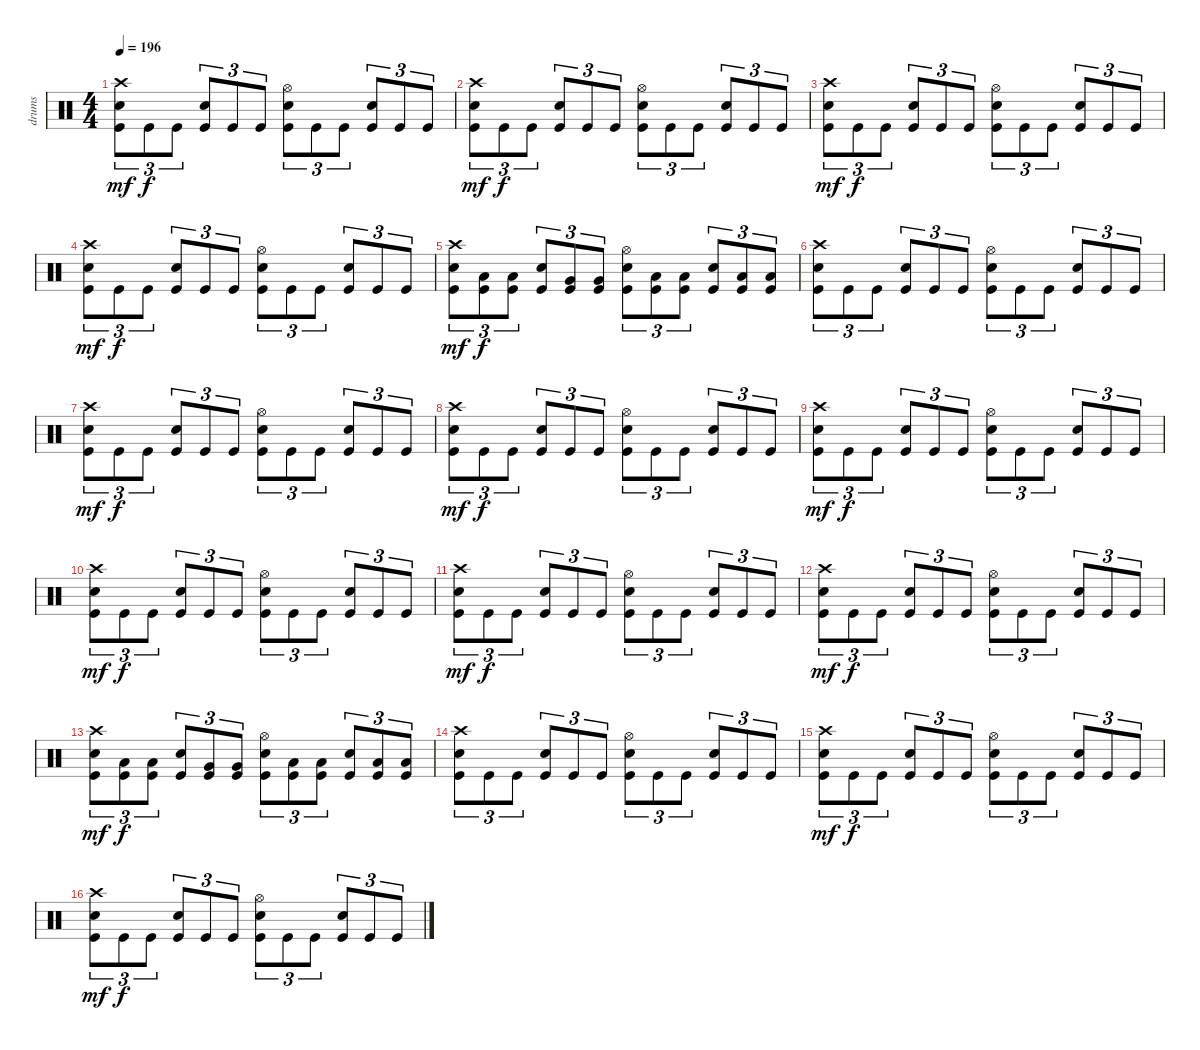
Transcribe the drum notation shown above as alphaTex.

\track ("drums" "drums") {instrument percussion}
\staff {score}
\articulation defaults
\ts (4 4)
\tempo 196
\clef neutral
\ks c
("Crash high (hit)" "Electric Snare (hit)" "Kick (hit)").8{tu (3 2) dy mf} "Kick (hit)".8{tu (3 2) dy f} "Kick (hit)".8{tu (3 2)} ("Electric Snare (hit)" "Kick (hit)").8{tu (3 2)} "Kick (hit)".8{tu (3 2)} "Kick (hit)".8{tu (3 2)} ("Hi-Hat (open)" "Electric Snare (hit)" "Kick (hit)").8{tu (3 2)} "Kick (hit)".8{tu (3 2)} "Kick (hit)".8{tu (3 2)} ("Electric Snare (hit)" "Kick (hit)").8{tu (3 2)} "Kick (hit)".8{tu (3 2)} "Kick (hit)".8{tu (3 2)} |
("Crash high (hit)" "Electric Snare (hit)" "Kick (hit)").8{tu (3 2) dy mf} "Kick (hit)".8{tu (3 2) dy f} "Kick (hit)".8{tu (3 2)} ("Electric Snare (hit)" "Kick (hit)").8{tu (3 2)} "Kick (hit)".8{tu (3 2)} "Kick (hit)".8{tu (3 2)} ("Hi-Hat (open)" "Electric Snare (hit)" "Kick (hit)").8{tu (3 2)} "Kick (hit)".8{tu (3 2)} "Kick (hit)".8{tu (3 2)} ("Electric Snare (hit)" "Kick (hit)").8{tu (3 2)} "Kick (hit)".8{tu (3 2)} "Kick (hit)".8{tu (3 2)} |
("Crash high (hit)" "Electric Snare (hit)" "Kick (hit)").8{tu (3 2) dy mf} "Kick (hit)".8{tu (3 2) dy f} "Kick (hit)".8{tu (3 2)} ("Electric Snare (hit)" "Kick (hit)").8{tu (3 2)} "Kick (hit)".8{tu (3 2)} "Kick (hit)".8{tu (3 2)} ("Hi-Hat (open)" "Electric Snare (hit)" "Kick (hit)").8{tu (3 2)} "Kick (hit)".8{tu (3 2)} "Kick (hit)".8{tu (3 2)} ("Electric Snare (hit)" "Kick (hit)").8{tu (3 2)} "Kick (hit)".8{tu (3 2)} "Kick (hit)".8{tu (3 2)} |
("Crash high (hit)" "Electric Snare (hit)" "Kick (hit)").8{tu (3 2) dy mf} "Kick (hit)".8{tu (3 2) dy f} "Kick (hit)".8{tu (3 2)} ("Electric Snare (hit)" "Kick (hit)").8{tu (3 2)} "Kick (hit)".8{tu (3 2)} "Kick (hit)".8{tu (3 2)} ("Hi-Hat (open)" "Electric Snare (hit)" "Kick (hit)").8{tu (3 2)} "Kick (hit)".8{tu (3 2)} "Kick (hit)".8{tu (3 2)} ("Electric Snare (hit)" "Kick (hit)").8{tu (3 2)} "Kick (hit)".8{tu (3 2)} "Kick (hit)".8{tu (3 2)} |
("Crash high (hit)" "Electric Snare (hit)" "Kick (hit)").8{tu (3 2) dy mf} ("Low Tom (hit)" "Kick (hit)").8{tu (3 2) dy f} ("Low Tom (hit)" "Kick (hit)").8{tu (3 2)} ("Electric Snare (hit)" "Kick (hit)").8{tu (3 2)} ("Very Low Tom (hit)" "Kick (hit)").8{tu (3 2)} ("Very Low Tom (hit)" "Kick (hit)").8{tu (3 2)} ("Hi-Hat (open)" "Electric Snare (hit)" "Kick (hit)").8{tu (3 2)} ("Low Floor Tom (hit)" "Kick (hit)").8{tu (3 2)} ("Low Floor Tom (hit)" "Kick (hit)").8{tu (3 2)} ("Electric Snare (hit)" "Kick (hit)").8{tu (3 2)} ("Low Floor Tom (hit)" "Kick (hit)").8{tu (3 2)} ("Low Floor Tom (hit)" "Kick (hit)").8{tu (3 2)} |
("Crash high (hit)" "Electric Snare (hit)" "Kick (hit)").8{tu (3 2)} "Kick (hit)".8{tu (3 2)} "Kick (hit)".8{tu (3 2)} ("Electric Snare (hit)" "Kick (hit)").8{tu (3 2)} "Kick (hit)".8{tu (3 2)} "Kick (hit)".8{tu (3 2)} ("Hi-Hat (open)" "Electric Snare (hit)" "Kick (hit)").8{tu (3 2)} "Kick (hit)".8{tu (3 2)} "Kick (hit)".8{tu (3 2)} ("Electric Snare (hit)" "Kick (hit)").8{tu (3 2)} "Kick (hit)".8{tu (3 2)} "Kick (hit)".8{tu (3 2)} |
("Crash high (hit)" "Electric Snare (hit)" "Kick (hit)").8{tu (3 2) dy mf} "Kick (hit)".8{tu (3 2) dy f} "Kick (hit)".8{tu (3 2)} ("Electric Snare (hit)" "Kick (hit)").8{tu (3 2)} "Kick (hit)".8{tu (3 2)} "Kick (hit)".8{tu (3 2)} ("Hi-Hat (open)" "Electric Snare (hit)" "Kick (hit)").8{tu (3 2)} "Kick (hit)".8{tu (3 2)} "Kick (hit)".8{tu (3 2)} ("Electric Snare (hit)" "Kick (hit)").8{tu (3 2)} "Kick (hit)".8{tu (3 2)} "Kick (hit)".8{tu (3 2)} |
("Crash high (hit)" "Electric Snare (hit)" "Kick (hit)").8{tu (3 2) dy mf} "Kick (hit)".8{tu (3 2) dy f} "Kick (hit)".8{tu (3 2)} ("Electric Snare (hit)" "Kick (hit)").8{tu (3 2)} "Kick (hit)".8{tu (3 2)} "Kick (hit)".8{tu (3 2)} ("Hi-Hat (open)" "Electric Snare (hit)" "Kick (hit)").8{tu (3 2)} "Kick (hit)".8{tu (3 2)} "Kick (hit)".8{tu (3 2)} ("Electric Snare (hit)" "Kick (hit)").8{tu (3 2)} "Kick (hit)".8{tu (3 2)} "Kick (hit)".8{tu (3 2)} |
("Crash high (hit)" "Electric Snare (hit)" "Kick (hit)").8{tu (3 2) dy mf} "Kick (hit)".8{tu (3 2) dy f} "Kick (hit)".8{tu (3 2)} ("Electric Snare (hit)" "Kick (hit)").8{tu (3 2)} "Kick (hit)".8{tu (3 2)} "Kick (hit)".8{tu (3 2)} ("Hi-Hat (open)" "Electric Snare (hit)" "Kick (hit)").8{tu (3 2)} "Kick (hit)".8{tu (3 2)} "Kick (hit)".8{tu (3 2)} ("Electric Snare (hit)" "Kick (hit)").8{tu (3 2)} "Kick (hit)".8{tu (3 2)} "Kick (hit)".8{tu (3 2)} |
("Crash high (hit)" "Electric Snare (hit)" "Kick (hit)").8{tu (3 2) dy mf} "Kick (hit)".8{tu (3 2) dy f} "Kick (hit)".8{tu (3 2)} ("Electric Snare (hit)" "Kick (hit)").8{tu (3 2)} "Kick (hit)".8{tu (3 2)} "Kick (hit)".8{tu (3 2)} ("Hi-Hat (open)" "Electric Snare (hit)" "Kick (hit)").8{tu (3 2)} "Kick (hit)".8{tu (3 2)} "Kick (hit)".8{tu (3 2)} ("Electric Snare (hit)" "Kick (hit)").8{tu (3 2)} "Kick (hit)".8{tu (3 2)} "Kick (hit)".8{tu (3 2)} |
("Crash high (hit)" "Electric Snare (hit)" "Kick (hit)").8{tu (3 2) dy mf} "Kick (hit)".8{tu (3 2) dy f} "Kick (hit)".8{tu (3 2)} ("Electric Snare (hit)" "Kick (hit)").8{tu (3 2)} "Kick (hit)".8{tu (3 2)} "Kick (hit)".8{tu (3 2)} ("Hi-Hat (open)" "Electric Snare (hit)" "Kick (hit)").8{tu (3 2)} "Kick (hit)".8{tu (3 2)} "Kick (hit)".8{tu (3 2)} ("Electric Snare (hit)" "Kick (hit)").8{tu (3 2)} "Kick (hit)".8{tu (3 2)} "Kick (hit)".8{tu (3 2)} |
("Crash high (hit)" "Electric Snare (hit)" "Kick (hit)").8{tu (3 2) dy mf} "Kick (hit)".8{tu (3 2) dy f} "Kick (hit)".8{tu (3 2)} ("Electric Snare (hit)" "Kick (hit)").8{tu (3 2)} "Kick (hit)".8{tu (3 2)} "Kick (hit)".8{tu (3 2)} ("Hi-Hat (open)" "Electric Snare (hit)" "Kick (hit)").8{tu (3 2)} "Kick (hit)".8{tu (3 2)} "Kick (hit)".8{tu (3 2)} ("Electric Snare (hit)" "Kick (hit)").8{tu (3 2)} "Kick (hit)".8{tu (3 2)} "Kick (hit)".8{tu (3 2)} |
("Crash high (hit)" "Electric Snare (hit)" "Kick (hit)").8{tu (3 2) dy mf} ("Low Tom (hit)" "Kick (hit)").8{tu (3 2) dy f} ("Low Tom (hit)" "Kick (hit)").8{tu (3 2)} ("Electric Snare (hit)" "Kick (hit)").8{tu (3 2)} ("Very Low Tom (hit)" "Kick (hit)").8{tu (3 2)} ("Very Low Tom (hit)" "Kick (hit)").8{tu (3 2)} ("Hi-Hat (open)" "Electric Snare (hit)" "Kick (hit)").8{tu (3 2)} ("Low Floor Tom (hit)" "Kick (hit)").8{tu (3 2)} ("Low Floor Tom (hit)" "Kick (hit)").8{tu (3 2)} ("Electric Snare (hit)" "Kick (hit)").8{tu (3 2)} ("Low Floor Tom (hit)" "Kick (hit)").8{tu (3 2)} ("Low Floor Tom (hit)" "Kick (hit)").8{tu (3 2)} |
("Crash high (hit)" "Electric Snare (hit)" "Kick (hit)").8{tu (3 2)} "Kick (hit)".8{tu (3 2)} "Kick (hit)".8{tu (3 2)} ("Electric Snare (hit)" "Kick (hit)").8{tu (3 2)} "Kick (hit)".8{tu (3 2)} "Kick (hit)".8{tu (3 2)} ("Hi-Hat (open)" "Electric Snare (hit)" "Kick (hit)").8{tu (3 2)} "Kick (hit)".8{tu (3 2)} "Kick (hit)".8{tu (3 2)} ("Electric Snare (hit)" "Kick (hit)").8{tu (3 2)} "Kick (hit)".8{tu (3 2)} "Kick (hit)".8{tu (3 2)} |
("Crash high (hit)" "Electric Snare (hit)" "Kick (hit)").8{tu (3 2) dy mf} "Kick (hit)".8{tu (3 2) dy f} "Kick (hit)".8{tu (3 2)} ("Electric Snare (hit)" "Kick (hit)").8{tu (3 2)} "Kick (hit)".8{tu (3 2)} "Kick (hit)".8{tu (3 2)} ("Hi-Hat (open)" "Electric Snare (hit)" "Kick (hit)").8{tu (3 2)} "Kick (hit)".8{tu (3 2)} "Kick (hit)".8{tu (3 2)} ("Electric Snare (hit)" "Kick (hit)").8{tu (3 2)} "Kick (hit)".8{tu (3 2)} "Kick (hit)".8{tu (3 2)} |
("Crash high (hit)" "Electric Snare (hit)" "Kick (hit)").8{tu (3 2) dy mf} "Kick (hit)".8{tu (3 2) dy f} "Kick (hit)".8{tu (3 2)} ("Electric Snare (hit)" "Kick (hit)").8{tu (3 2)} "Kick (hit)".8{tu (3 2)} "Kick (hit)".8{tu (3 2)} ("Hi-Hat (open)" "Electric Snare (hit)" "Kick (hit)").8{tu (3 2)} "Kick (hit)".8{tu (3 2)} "Kick (hit)".8{tu (3 2)} ("Electric Snare (hit)" "Kick (hit)").8{tu (3 2)} "Kick (hit)".8{tu (3 2)} "Kick (hit)".8{tu (3 2)}
